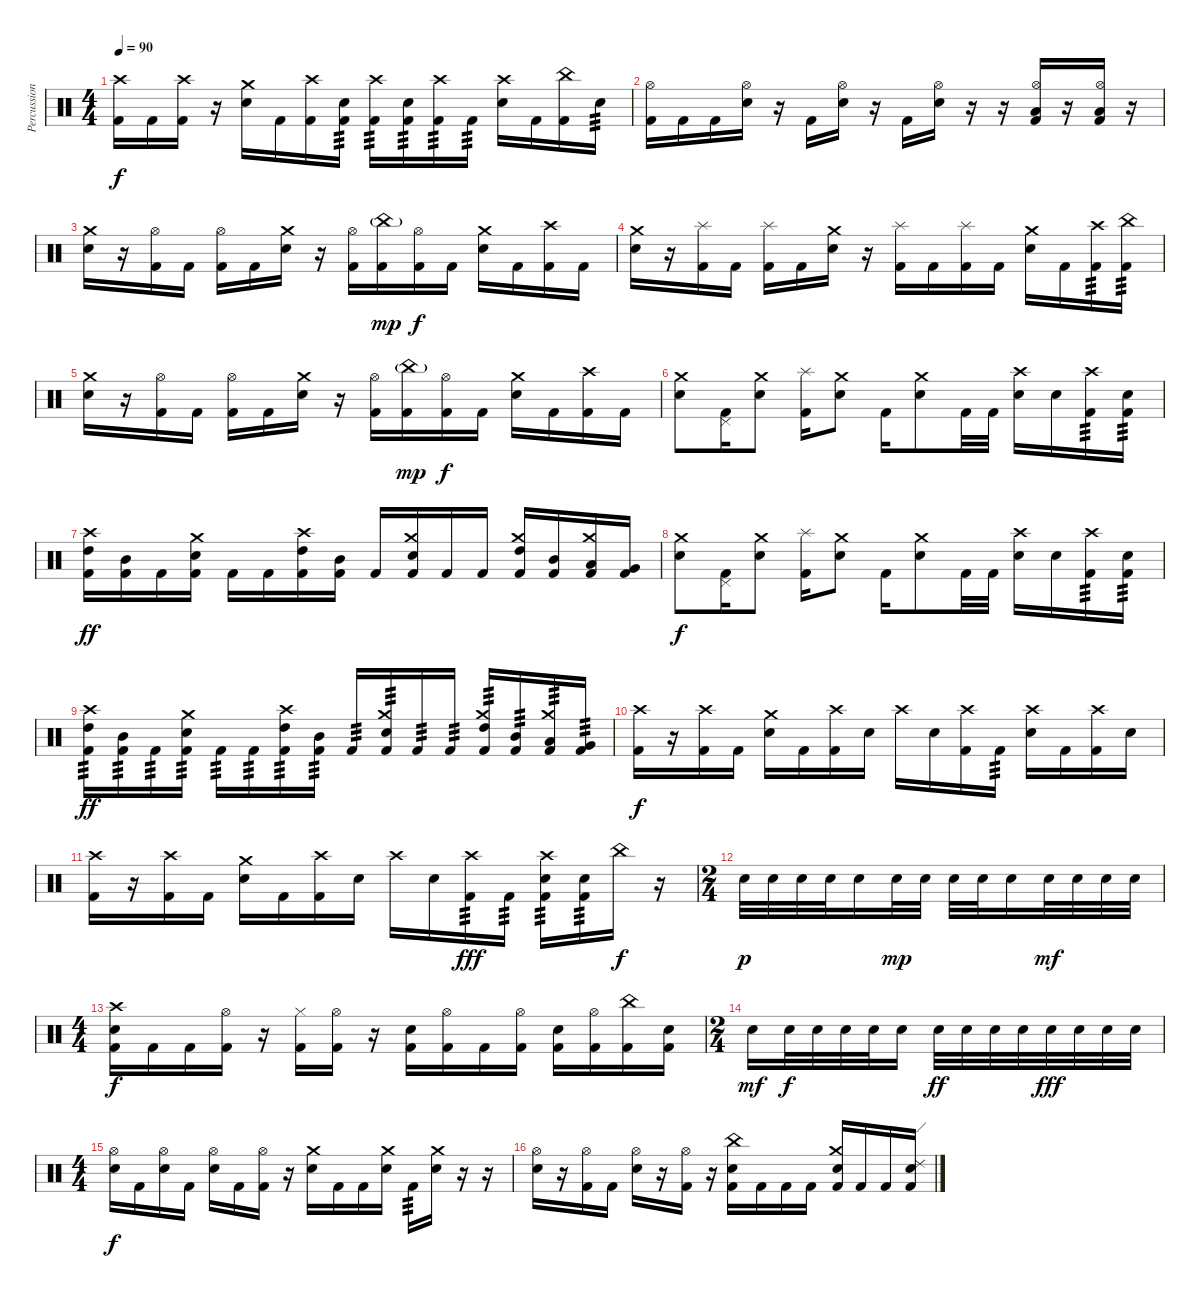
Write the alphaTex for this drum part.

\track ("Percussion" "Percussion") {instrument percussion}
\staff {score}
\articulation defaults
\ts (4 4)
\tempo 90
\clef neutral
\ks c
("Crash high (hit)" "Kick (hit) 2").16{dy f} "Kick (hit) 2".16 ("Crash high (hit)" "Kick (hit) 2").16 r.16 ("Crash medium (hit)" "Electric Snare (hit)").16 "Kick (hit) 2".16 ("Crash high (hit)" "Kick (hit) 2").16 ("Electric Snare (hit)" "Kick (hit) 2").16{tp 3} ("Crash high (hit)" "Kick (hit) 2").16{tp 3} ("Electric Snare (hit)" "Kick (hit) 2").16{tp 3} ("Crash high (hit)" "Kick (hit) 2").16{tp 3} "Kick (hit) 2".16{tp 3} ("Crash high (hit)" "Electric Snare (hit)").16 "Kick (hit) 2".16 ("China (hit)" "Kick (hit) 2").16 "Electric Snare (hit)".16{tp 3} |
("Hi-Hat (open)" "Kick (hit) 2").16 "Kick (hit) 2".16 "Kick (hit) 2".16 ("Hi-Hat (open)" "Electric Snare (hit)").16 r.16 "Kick (hit) 2".16 ("Hi-Hat (open)" "Electric Snare (hit)").16 r.16 "Kick (hit) 2".16 ("Hi-Hat (open)" "Electric Snare (hit)").16 r.16 r.16 ("Hi-Hat (open)" "Low Floor Tom (hit)" "Kick (hit) 2").16 r.16 ("Hi-Hat (open)" "Low Floor Tom (hit)" "Kick (hit) 2").16 r.16 |
("Crash medium (hit)" "Electric Snare (hit)").16 r.16 ("Hi-Hat (open)" "Kick (hit) 2").16 "Kick (hit) 2".16 ("Hi-Hat (open)" "Kick (hit) 2").16 "Kick (hit) 2".16 ("Crash medium (hit)" "Electric Snare (hit)").16 r.16 ("Hi-Hat (open)" "Kick (hit) 2").16 ("China (hit)"{g} "Kick (hit) 2").16{dy mp} ("Hi-Hat (open)" "Kick (hit) 2").16{dy f} "Kick (hit) 2".16 ("Crash medium (hit)" "Electric Snare (hit)").16 "Kick (hit) 2".16 ("Crash high (hit)" "Kick (hit) 2").16 "Kick (hit) 2".16 |
("Crash medium (hit)" "Electric Snare (hit)").16 r.16 ("Splash (hit)" "Kick (hit) 2").16 "Kick (hit) 2".16 ("Splash (hit)" "Kick (hit) 2").16 "Kick (hit) 2".16 ("Crash medium (hit)" "Electric Snare (hit)").16 r.16 ("Splash (hit)" "Kick (hit) 2").16 "Kick (hit) 2".16 ("Splash (hit)" "Kick (hit) 2").16 "Kick (hit) 2".16 ("Crash medium (hit)" "Electric Snare (hit)").16 "Kick (hit) 2".16 ("Crash high (hit)" "Kick (hit) 2").16{tp 3} ("China (hit)" "Kick (hit) 2").16{tp 3} |
("Crash medium (hit)" "Electric Snare (hit)").16 r.16 ("Hi-Hat (open)" "Kick (hit) 2").16 "Kick (hit) 2".16 ("Hi-Hat (open)" "Kick (hit) 2").16 "Kick (hit) 2".16 ("Crash medium (hit)" "Electric Snare (hit)").16 r.16 ("Hi-Hat (open)" "Kick (hit) 2").16 ("China (hit)"{g} "Kick (hit) 2").16{dy mp} ("Hi-Hat (open)" "Kick (hit) 2").16{dy f} "Kick (hit) 2".16 ("Crash medium (hit)" "Electric Snare (hit)").16 "Kick (hit) 2".16 ("Crash high (hit)" "Kick (hit) 2").16 "Kick (hit) 2".16 |
("Crash medium (hit)" "Electric Snare (hit)").8 ("Pedal Hi-Hat (hit)" "Kick (hit) 2").16 ("Crash medium (hit)" "Electric Snare (hit)").8 ("Splash (hit)" "Kick (hit) 2").16 ("Crash medium (hit)" "Electric Snare (hit)").8 "Kick (hit) 2".16 ("Crash medium (hit)" "Electric Snare (hit)").8 "Kick (hit) 2".32 "Kick (hit) 2".32 ("Crash high (hit)" "Electric Snare (hit)").16 "Electric Snare (hit)".16 ("Crash high (hit)" "Kick (hit) 2").16{tp 3} ("Electric Snare (hit)" "Kick (hit) 2").16{tp 3} |
("Crash high (hit)" "High Tom (hit)" "Kick (hit) 2").16{dy ff} ("Mid Tom (hit)" "Kick (hit) 2").16 "Kick (hit) 2".16 ("Crash medium (hit)" "Electric Snare (hit)" "Kick (hit) 2").16 "Kick (hit) 2".16 "Kick (hit) 2".16 ("Crash high (hit)" "High Tom (hit)" "Kick (hit) 2").16 ("Mid Tom (hit)" "Kick (hit) 2").16 "Kick (hit) 2".16 ("Crash medium (hit)" "Electric Snare (hit)" "Kick (hit) 2").16 "Kick (hit) 2".16 "Kick (hit) 2".16 ("Crash medium (hit)" "High Tom (hit)" "Kick (hit) 2").16 ("Mid Tom (hit)" "Kick (hit) 2").16 ("Crash medium (hit)" "Low Tom (hit)" "Kick (hit) 2").16 ("Very Low Tom (hit)" "Kick (hit) 2").16 |
("Crash medium (hit)" "Electric Snare (hit)").8{dy f} ("Pedal Hi-Hat (hit)" "Kick (hit) 2").16 ("Crash medium (hit)" "Electric Snare (hit)").8 ("Splash (hit)" "Kick (hit) 2").16 ("Crash medium (hit)" "Electric Snare (hit)").8 "Kick (hit) 2".16 ("Crash medium (hit)" "Electric Snare (hit)").8 "Kick (hit) 2".32 "Kick (hit) 2".32 ("Crash high (hit)" "Electric Snare (hit)").16 "Electric Snare (hit)".16 ("Crash high (hit)" "Kick (hit) 2").16{tp 3} ("Electric Snare (hit)" "Kick (hit) 2").16{tp 3} |
("Crash high (hit)" "High Tom (hit)" "Kick (hit) 2").16{tp 3 dy ff} ("Mid Tom (hit)" "Kick (hit) 2").16{tp 3} "Kick (hit) 2".16{tp 3} ("Crash medium (hit)" "Electric Snare (hit)" "Kick (hit) 2").16{tp 3} "Kick (hit) 2".16{tp 3} "Kick (hit) 2".16{tp 3} ("Crash high (hit)" "High Tom (hit)" "Kick (hit) 2").16{tp 3} ("Mid Tom (hit)" "Kick (hit) 2").16{tp 3} "Kick (hit) 2".16{tp 3} ("Crash medium (hit)" "Electric Snare (hit)" "Kick (hit) 2").16{tp 3} "Kick (hit) 2".16{tp 3} "Kick (hit) 2".16{tp 3} ("Crash medium (hit)" "High Tom (hit)" "Kick (hit) 2").16{tp 3} ("Mid Tom (hit)" "Kick (hit) 2").16{tp 3} ("Crash medium (hit)" "Low Tom (hit)" "Kick (hit) 2").16{tp 3} ("Very Low Tom (hit)" "Kick (hit) 2").16{tp 3} |
("Crash high (hit)" "Kick (hit) 2").16{dy f} r.16 ("Crash high (hit)" "Kick (hit) 2").16 "Kick (hit) 2".16 ("Crash medium (hit)" "Electric Snare (hit)").16 "Kick (hit) 2".16 ("Crash high (hit)" "Kick (hit) 2").16 "Electric Snare (hit)".16 "Crash high (hit)".16 "Electric Snare (hit)".16 ("Crash high (hit)" "Kick (hit) 2").16 "Kick (hit) 2".16{tp 3} ("Crash high (hit)" "Electric Snare (hit)").16 "Kick (hit) 2".16 ("Crash high (hit)" "Kick (hit) 2").16 "Electric Snare (hit)".16 |
("Crash high (hit)" "Kick (hit) 2").16 r.16 ("Crash high (hit)" "Kick (hit) 2").16 "Kick (hit) 2".16 ("Crash medium (hit)" "Electric Snare (hit)").16 "Kick (hit) 2".16 ("Crash high (hit)" "Kick (hit) 2").16 "Electric Snare (hit)".16 "Crash high (hit)".16 "Electric Snare (hit)".16 ("Crash high (hit)" "Kick (hit) 2").16{tp 3 dy fff} "Kick (hit) 2".16{tp 3} ("Crash high (hit)" "Electric Snare (hit)" "Kick (hit) 2").16{tp 3} ("Electric Snare (hit)" "Kick (hit) 2").16{tp 3} "China (hit)".16{dy f} r.16 |
\ts (2 4)
"Electric Snare (hit)".32{dy p} "Electric Snare (hit)".32 "Electric Snare (hit)".32 "Electric Snare (hit)".32 "Electric Snare (hit)".16 "Electric Snare (hit)".32{dy mp} "Electric Snare (hit)".32 "Electric Snare (hit)".32 "Electric Snare (hit)".32 "Electric Snare (hit)".16 "Electric Snare (hit)".32{dy mf} "Electric Snare (hit)".32 "Electric Snare (hit)".32 "Electric Snare (hit)".32 |
\ts (4 4)
("Crash high (hit)" "Electric Snare (hit)" "Kick (hit) 2").16{dy f} "Kick (hit) 2".16 "Kick (hit) 2".16 ("Hi-Hat (open)" "Kick (hit) 2").16 r.16 ("Hi-Hat (closed)" "Kick (hit) 2").16 ("Hi-Hat (open)" "Kick (hit) 2").16 r.16 ("Electric Snare (hit)" "Kick (hit) 2").16 ("Hi-Hat (open)" "Kick (hit) 2").16 "Kick (hit) 2".16 ("Hi-Hat (open)" "Kick (hit) 2").16 ("Electric Snare (hit)" "Kick (hit) 2").16 ("Hi-Hat (open)" "Kick (hit) 2").16 ("China (hit)" "Kick (hit) 2").16 ("Electric Snare (hit)" "Kick (hit) 2").16 |
\ts (2 4)
"Electric Snare (hit)".16{dy mf} "Electric Snare (hit)".32{dy f} "Electric Snare (hit)".32 "Electric Snare (hit)".32 "Electric Snare (hit)".32 "Electric Snare (hit)".16 "Electric Snare (hit)".32{dy ff} "Electric Snare (hit)".32 "Electric Snare (hit)".32 "Electric Snare (hit)".32 "Electric Snare (hit)".32{dy fff} "Electric Snare (hit)".32 "Electric Snare (hit)".32 "Electric Snare (hit)".32 |
\ts (4 4)
("Hi-Hat (open)" "Electric Snare (hit)").16{dy f} "Kick (hit) 2".16 ("Hi-Hat (open)" "Electric Snare (hit)").16 "Kick (hit) 2".16 ("Hi-Hat (open)" "Electric Snare (hit)").16 "Kick (hit) 2".16 ("Hi-Hat (open)" "Kick (hit) 2").16 r.16 ("Crash medium (hit)" "Electric Snare (hit)").16 "Kick (hit) 2".16 "Kick (hit) 2".16 ("Crash medium (hit)" "Electric Snare (hit)").16 "Kick (hit) 2".16{tp 3} ("Crash medium (hit)" "Electric Snare (hit)").16 r.16 r.16 |
("Hi-Hat (open)" "Electric Snare (hit)").16 r.16 ("Hi-Hat (open)" "Kick (hit) 2").16 "Kick (hit) 2".16 ("Hi-Hat (open)" "Electric Snare (hit)").16 r.16 ("Hi-Hat (open)" "Kick (hit) 2").16 r.16 ("China (hit)" "Electric Snare (hit)" "Kick (hit) 2").16 "Kick (hit) 2".16 "Kick (hit) 2".16 "Kick (hit) 2".16 ("Crash medium (hit)" "Electric Snare (hit)" "Kick (hit) 2").16 "Kick (hit) 2".16 "Kick (hit) 2".16 ("Ride (edge) 2" "Electric Snare (hit)" "Kick (hit) 2").16
